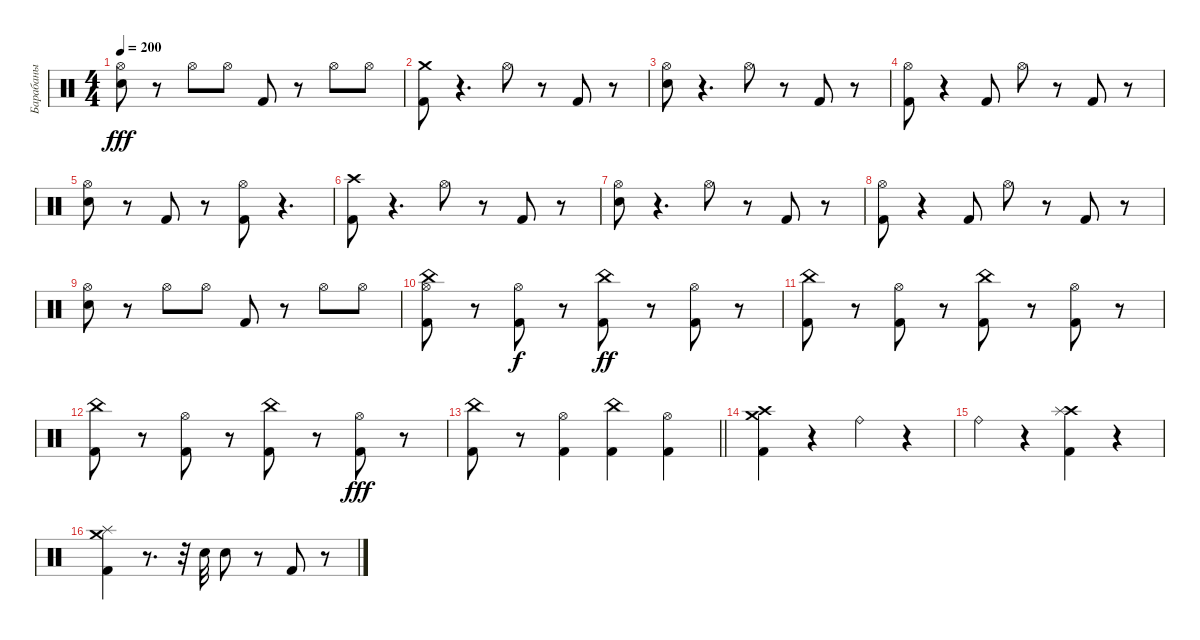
\track ("Барабаны" "Барабаны") {instrument percussion}
\staff {score}
\articulation defaults
\ts (4 4)
\tempo 200
\clef neutral
\ks c
("Snare (hit) 2" "Hi-Hat (open)").8{dy fff} r.8 "Hi-Hat (open)".8 "Hi-Hat (open)".8 "Kick (hit) 2".8 r.8 "Hi-Hat (open)".8 "Hi-Hat (open)".8 |
("Kick (hit) 2" "Crash medium (hit)").8 r.4{d} "Hi-Hat (open)".8 r.8 "Kick (hit) 2".8 r.8 |
("Snare (hit) 2" "Hi-Hat (open)").8 r.4{d} "Hi-Hat (open)".8 r.8 "Kick (hit) 2".8 r.8 |
("Kick (hit) 2" "Hi-Hat (open)").8 r.4 "Kick (hit) 2".8 "Hi-Hat (open)".8 r.8 "Kick (hit) 2".8 r.8 |
("Snare (hit) 2" "Hi-Hat (open)").8 r.8 "Kick (hit) 2".8 r.8 ("Kick (hit) 2" "Hi-Hat (open)").8 r.4{d} |
("Kick (hit) 2" "Crash high (hit)").8 r.4{d} "Hi-Hat (open)".8 r.8 "Kick (hit) 2".8 r.8 |
("Snare (hit) 2" "Hi-Hat (open)").8 r.4{d} "Hi-Hat (open)".8 r.8 "Kick (hit) 2".8 r.8 |
("Kick (hit) 2" "Hi-Hat (open)").8 r.4 "Kick (hit) 2".8 "Hi-Hat (open)".8 r.8 "Kick (hit) 2".8 r.8 |
("Snare (hit) 2" "Hi-Hat (open)").8 r.8 "Hi-Hat (open)".8 "Hi-Hat (open)".8 "Kick (hit) 2".8 r.8 "Hi-Hat (open)".8 "Hi-Hat (open)".8 |
("Kick (hit) 2" "China (hit)" "Hi-Hat (open)").8 r.8 ("Kick (hit) 2" "Hi-Hat (open)").8{dy f} r.8 ("Kick (hit) 2" "China (hit)").8{dy ff} r.8 ("Kick (hit) 2" "Hi-Hat (open)").8 r.8 |
("Kick (hit) 2" "China (hit)").8 r.8 ("Kick (hit) 2" "Hi-Hat (open)").8 r.8 ("Kick (hit) 2" "China (hit)").8 r.8 ("Kick (hit) 2" "Hi-Hat (open)").8 r.8 |
("Kick (hit) 2" "China (hit)").8 r.8 ("Kick (hit) 2" "Hi-Hat (open)").8 r.8 ("Kick (hit) 2" "China (hit)").8 r.8 ("Kick (hit) 2" "Hi-Hat (open)").8{dy fff} r.8 |
\barLineRight lightlight
("Kick (hit) 2" "China (hit)").8 r.8 ("Kick (hit) 2" "Hi-Hat (open)").4 ("Kick (hit) 2" "China (hit)").4 ("Kick (hit) 2" "Hi-Hat (open)").4 |
\section ("" " ")
("Kick (hit) 2" "Crash high (hit)" "Crash medium (hit)").4 r.4 "Ride (bell)".4 r.4 |
"Ride (bell)".4 r.4 ("Kick (hit) 2" "Crash high (hit)" "Splash (hit)").4 r.4 |
("Kick (hit) 2" "Splash (hit)" "Crash medium (hit)").4 r.8{d} r.32 "Snare (hit) 2".32 "Snare (hit) 2".8 r.8 "Kick (hit) 2".8 r.8
